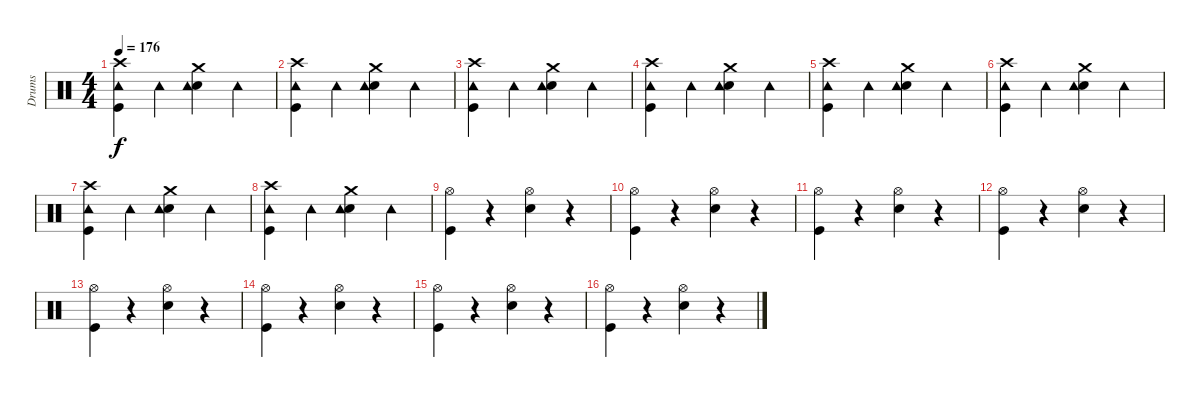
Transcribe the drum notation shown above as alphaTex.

\track ("Drums" "Drums") {instrument percussion}
\staff {score}
\articulation defaults
\ts (4 4)
\tempo 176
\clef neutral
\ks c
("Crash high (hit)" "Kick (hit)" "Tambourine (hit)").4{dy f} "Tambourine (hit)".4 ("Crash medium (hit)" "Electric Snare (hit)" "Tambourine (hit)").4 "Tambourine (hit)".4 |
("Crash high (hit)" "Kick (hit)" "Tambourine (hit)").4 "Tambourine (hit)".4 ("Crash medium (hit)" "Electric Snare (hit)" "Tambourine (hit)").4 "Tambourine (hit)".4 |
("Crash high (hit)" "Kick (hit)" "Tambourine (hit)").4 "Tambourine (hit)".4 ("Crash medium (hit)" "Electric Snare (hit)" "Tambourine (hit)").4 "Tambourine (hit)".4 |
("Crash high (hit)" "Kick (hit)" "Tambourine (hit)").4 "Tambourine (hit)".4 ("Crash medium (hit)" "Electric Snare (hit)" "Tambourine (hit)").4 "Tambourine (hit)".4 |
("Crash high (hit)" "Kick (hit)" "Tambourine (hit)").4 "Tambourine (hit)".4 ("Crash medium (hit)" "Electric Snare (hit)" "Tambourine (hit)").4 "Tambourine (hit)".4 |
("Crash high (hit)" "Kick (hit)" "Tambourine (hit)").4 "Tambourine (hit)".4 ("Crash medium (hit)" "Electric Snare (hit)" "Tambourine (hit)").4 "Tambourine (hit)".4 |
("Crash high (hit)" "Kick (hit)" "Tambourine (hit)").4 "Tambourine (hit)".4 ("Crash medium (hit)" "Electric Snare (hit)" "Tambourine (hit)").4 "Tambourine (hit)".4 |
("Crash high (hit)" "Kick (hit)" "Tambourine (hit)").4 "Tambourine (hit)".4 ("Crash medium (hit)" "Electric Snare (hit)" "Tambourine (hit)").4 "Tambourine (hit)".4 |
("Hi-Hat (open)" "Kick (hit)").4 r.4 ("Hi-Hat (open)" "Snare (hit) 2").4 r.4 |
("Hi-Hat (open)" "Kick (hit)").4 r.4 ("Hi-Hat (open)" "Electric Snare (hit)").4 r.4 |
("Hi-Hat (open)" "Kick (hit)").4 r.4 ("Hi-Hat (open)" "Snare (hit) 2").4 r.4 |
("Hi-Hat (open)" "Kick (hit)").4 r.4 ("Hi-Hat (open)" "Electric Snare (hit)").4 r.4 |
("Hi-Hat (open)" "Kick (hit)").4 r.4 ("Hi-Hat (open)" "Snare (hit) 2").4 r.4 |
("Hi-Hat (open)" "Kick (hit)").4 r.4 ("Hi-Hat (open)" "Electric Snare (hit)").4 r.4 |
("Hi-Hat (open)" "Kick (hit)").4 r.4 ("Hi-Hat (open)" "Snare (hit) 2").4 r.4 |
("Hi-Hat (open)" "Kick (hit)").4 r.4 ("Hi-Hat (open)" "Electric Snare (hit)").4 r.4
